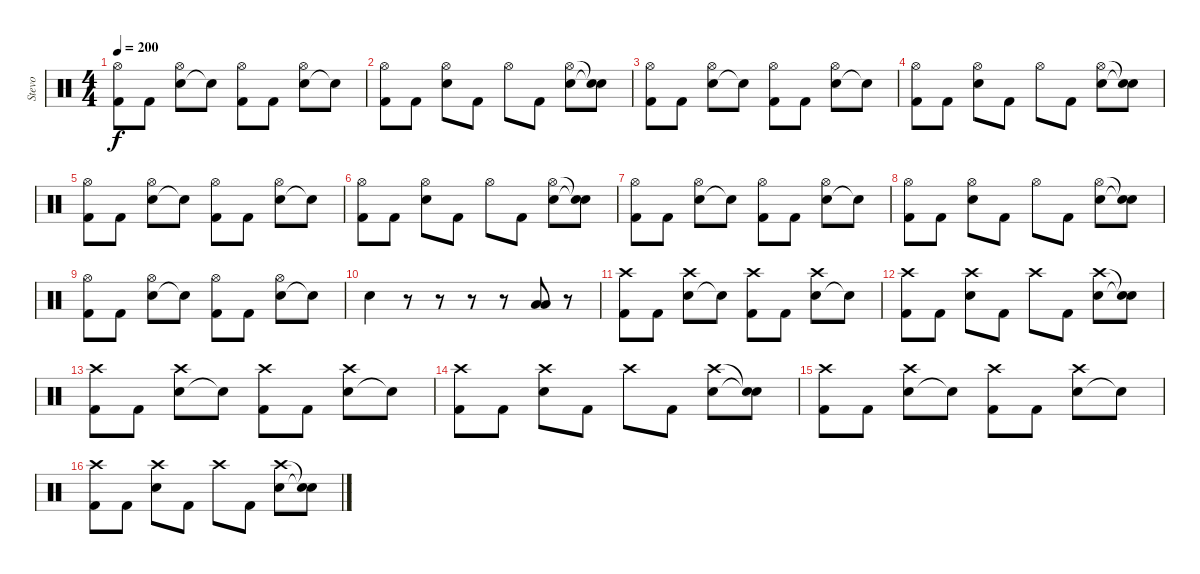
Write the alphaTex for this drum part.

\track ("Stevo" "Stevo") {instrument percussion}
\staff {score}
\articulation defaults
\ts (4 4)
\tempo 200
\clef neutral
\ks c
("Kick (hit) 2" "Hi-Hat (open)").8{dy f} "Kick (hit) 2".8 ("Snare (hit) 2" "Hi-Hat (open)").8 "Snare (hit)"{t}.8 ("Kick (hit) 2" "Hi-Hat (open)").8 "Kick (hit) 2".8 ("Snare (hit) 2" "Hi-Hat (open)").8 "Snare (hit)"{t}.8 |
("Kick (hit) 2" "Hi-Hat (open)").8 "Kick (hit) 2".8 ("Snare (hit) 2" "Hi-Hat (open)").8 "Kick (hit) 2".8 "Hi-Hat (open)".8 "Kick (hit) 2".8 ("Snare (hit) 2" "Hi-Hat (open)").8 ("Snare (hit)"{t} "Snare (hit)"{t}).8 |
("Kick (hit) 2" "Hi-Hat (open)").8 "Kick (hit) 2".8 ("Snare (hit) 2" "Hi-Hat (open)").8 "Snare (hit)"{t}.8 ("Kick (hit) 2" "Hi-Hat (open)").8 "Kick (hit) 2".8 ("Snare (hit) 2" "Hi-Hat (open)").8 "Snare (hit)"{t}.8 |
("Kick (hit) 2" "Hi-Hat (open)").8 "Kick (hit) 2".8 ("Snare (hit) 2" "Hi-Hat (open)").8 "Kick (hit) 2".8 "Hi-Hat (open)".8 "Kick (hit) 2".8 ("Snare (hit) 2" "Hi-Hat (open)").8 ("Snare (hit)"{t} "Snare (hit)"{t}).8 |
("Kick (hit) 2" "Hi-Hat (open)").8 "Kick (hit) 2".8 ("Snare (hit) 2" "Hi-Hat (open)").8 "Snare (hit)"{t}.8 ("Kick (hit) 2" "Hi-Hat (open)").8 "Kick (hit) 2".8 ("Snare (hit) 2" "Hi-Hat (open)").8 "Snare (hit)"{t}.8 |
("Kick (hit) 2" "Hi-Hat (open)").8 "Kick (hit) 2".8 ("Snare (hit) 2" "Hi-Hat (open)").8 "Kick (hit) 2".8 "Hi-Hat (open)".8 "Kick (hit) 2".8 ("Snare (hit) 2" "Hi-Hat (open)").8 ("Snare (hit)"{t} "Snare (hit)"{t}).8 |
("Kick (hit) 2" "Hi-Hat (open)").8 "Kick (hit) 2".8 ("Snare (hit) 2" "Hi-Hat (open)").8 "Snare (hit)"{t}.8 ("Kick (hit) 2" "Hi-Hat (open)").8 "Kick (hit) 2".8 ("Snare (hit) 2" "Hi-Hat (open)").8 "Snare (hit)"{t}.8 |
("Kick (hit) 2" "Hi-Hat (open)").8 "Kick (hit) 2".8 ("Snare (hit) 2" "Hi-Hat (open)").8 "Kick (hit) 2".8 "Hi-Hat (open)".8 "Kick (hit) 2".8 ("Snare (hit) 2" "Hi-Hat (open)").8 ("Snare (hit)"{t} "Snare (hit)"{t}).8 |
("Kick (hit) 2" "Hi-Hat (open)").8 "Kick (hit) 2".8 ("Snare (hit) 2" "Hi-Hat (open)").8 "Snare (hit)"{t}.8 ("Kick (hit) 2" "Hi-Hat (open)").8 "Kick (hit) 2".8 ("Snare (hit) 2" "Hi-Hat (open)").8 "Snare (hit)"{t}.8 |
"Snare (hit) 2".4 r.8 r.8 r.8 r.8 ("Low Tom (hit)" "Low Floor Tom (hit)").8 r.8 |
("Kick (hit) 2" "Crash high (hit)").8 "Kick (hit) 2".8 ("Snare (hit) 2" "Crash high (hit)").8 "Snare (hit)"{t}.8 ("Kick (hit) 2" "Crash high (hit)").8 "Kick (hit) 2".8 ("Snare (hit) 2" "Crash high (hit)").8 "Snare (hit)"{t}.8 |
("Kick (hit) 2" "Crash high (hit)").8 "Kick (hit) 2".8 ("Snare (hit) 2" "Crash high (hit)").8 "Kick (hit) 2".8 "Crash high (hit)".8 "Kick (hit) 2".8 ("Snare (hit) 2" "Crash high (hit)").8 ("Snare (hit)"{t} "Snare (hit)"{t}).8 |
("Kick (hit) 2" "Crash high (hit)").8 "Kick (hit) 2".8 ("Snare (hit) 2" "Crash high (hit)").8 "Snare (hit)"{t}.8 ("Kick (hit) 2" "Crash high (hit)").8 "Kick (hit) 2".8 ("Snare (hit) 2" "Crash high (hit)").8 "Snare (hit)"{t}.8 |
("Kick (hit) 2" "Crash high (hit)").8 "Kick (hit) 2".8 ("Snare (hit) 2" "Crash high (hit)").8 "Kick (hit) 2".8 "Crash high (hit)".8 "Kick (hit) 2".8 ("Snare (hit) 2" "Crash high (hit)").8 ("Snare (hit)"{t} "Snare (hit)"{t}).8 |
("Kick (hit) 2" "Crash high (hit)").8 "Kick (hit) 2".8 ("Snare (hit) 2" "Crash high (hit)").8 "Snare (hit)"{t}.8 ("Kick (hit) 2" "Crash high (hit)").8 "Kick (hit) 2".8 ("Snare (hit) 2" "Crash high (hit)").8 "Snare (hit)"{t}.8 |
("Kick (hit) 2" "Crash high (hit)").8 "Kick (hit) 2".8 ("Snare (hit) 2" "Crash high (hit)").8 "Kick (hit) 2".8 "Crash high (hit)".8 "Kick (hit) 2".8 ("Snare (hit) 2" "Crash high (hit)").8 ("Snare (hit)"{t} "Snare (hit)"{t}).8
